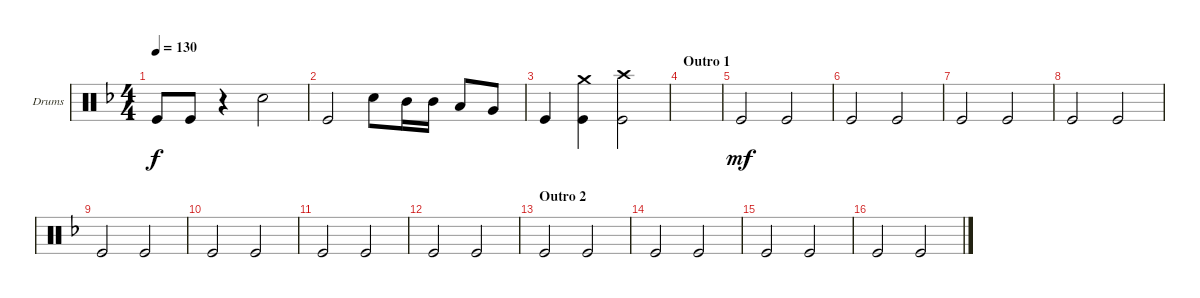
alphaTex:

\defaultSystemsLayout 4
\bracketExtendMode groupsimilarinstruments
\firstSystemTrackNameOrientation horizontal
\otherSystemsTrackNameOrientation horizontal
\track ("Drumkit" "Drums") {instrument percussion}
\staff {score}
\articulation defaults
\ts (4 4)
\tempo 130
\clef neutral
\ks dminor "Kick (hit)".8{dy f} "Kick (hit)".8
r.4 "Snare (hit) 2".2 |
"Kick (hit)".2 "Snare (hit) 2".8 "Mid Tom (hit)".16 "Mid Tom (hit)".16 "Low Tom (hit)".8 "Very Low Tom (hit)".8 |
"Kick (hit)".4 ("Kick (hit)" "Crash medium (hit)").4 ("Crash high (hit)" "Kick (hit)").2 |
\section ("" "Outro 1")
|
"Kick (hit)".2{dy mf} "Kick (hit)".2 |
"Kick (hit)".2 "Kick (hit)".2 |
"Kick (hit)".2 "Kick (hit)".2 |
"Kick (hit)".2 "Kick (hit)".2 |
"Kick (hit)".2 "Kick (hit)".2 |
"Kick (hit)".2 "Kick (hit)".2 |
"Kick (hit)".2 "Kick (hit)".2 |
"Kick (hit)".2 "Kick (hit)".2 |
\section ("" "Outro 2")
"Kick (hit)".2 "Kick (hit)".2 |
"Kick (hit)".2 "Kick (hit)".2 |
"Kick (hit)".2 "Kick (hit)".2 |
"Kick (hit)".2 "Kick (hit)".2
